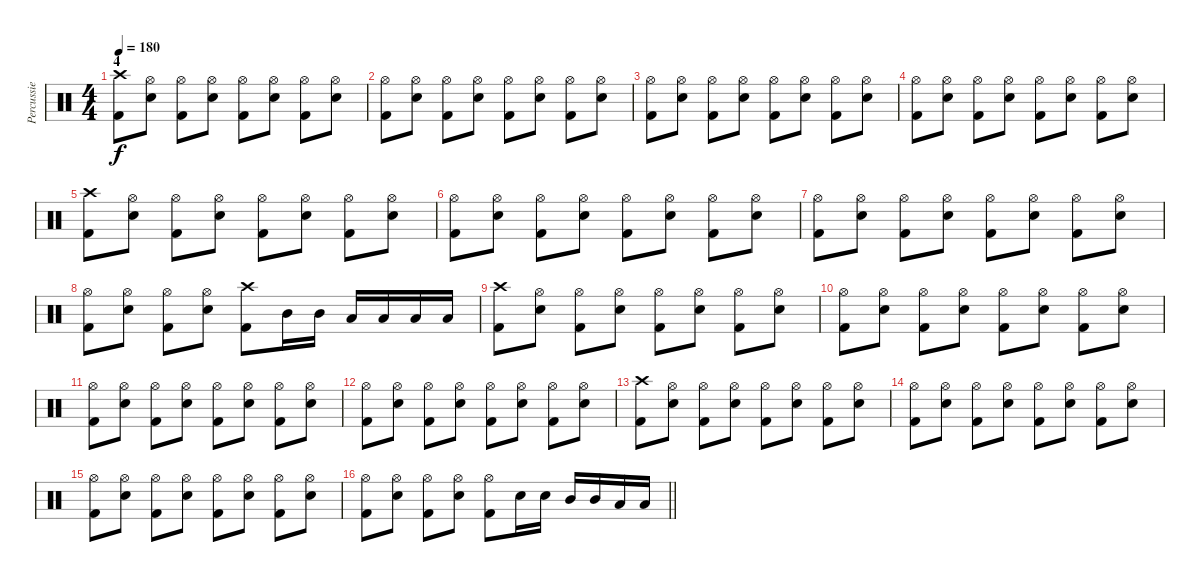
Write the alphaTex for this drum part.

\track ("Percussie" "Percussie") {instrument percussion}
\staff {score}
\articulation defaults
\ts (4 4)
\section ("" "4")
\tempo 180
\clef neutral
\ks c
("Crash high (hit)" "Kick (hit) 2").8{dy f} ("Hi-Hat (open)" "Snare (hit) 2").8 ("Hi-Hat (open)" "Kick (hit) 2").8 ("Hi-Hat (open)" "Snare (hit) 2").8 ("Hi-Hat (open)" "Kick (hit) 2").8 ("Hi-Hat (open)" "Snare (hit) 2").8 ("Hi-Hat (open)" "Kick (hit) 2").8 ("Hi-Hat (open)" "Snare (hit) 2").8 |
("Hi-Hat (open)" "Kick (hit) 2").8 ("Hi-Hat (open)" "Snare (hit) 2").8 ("Hi-Hat (open)" "Kick (hit) 2").8 ("Hi-Hat (open)" "Snare (hit) 2").8 ("Hi-Hat (open)" "Kick (hit) 2").8 ("Hi-Hat (open)" "Snare (hit) 2").8 ("Hi-Hat (open)" "Kick (hit) 2").8 ("Hi-Hat (open)" "Snare (hit) 2").8 |
("Hi-Hat (open)" "Kick (hit) 2").8 ("Hi-Hat (open)" "Snare (hit) 2").8 ("Hi-Hat (open)" "Kick (hit) 2").8 ("Hi-Hat (open)" "Snare (hit) 2").8 ("Hi-Hat (open)" "Kick (hit) 2").8 ("Hi-Hat (open)" "Snare (hit) 2").8 ("Hi-Hat (open)" "Kick (hit) 2").8 ("Hi-Hat (open)" "Snare (hit) 2").8 |
("Hi-Hat (open)" "Kick (hit) 2").8 ("Hi-Hat (open)" "Snare (hit) 2").8 ("Hi-Hat (open)" "Kick (hit) 2").8 ("Hi-Hat (open)" "Snare (hit) 2").8 ("Hi-Hat (open)" "Kick (hit) 2").8 ("Hi-Hat (open)" "Snare (hit) 2").8 ("Hi-Hat (open)" "Kick (hit) 2").8 ("Hi-Hat (open)" "Snare (hit) 2").8 |
("Crash high (hit)" "Kick (hit) 2").8 ("Hi-Hat (open)" "Snare (hit) 2").8 ("Hi-Hat (open)" "Kick (hit) 2").8 ("Hi-Hat (open)" "Snare (hit) 2").8 ("Hi-Hat (open)" "Kick (hit) 2").8 ("Hi-Hat (open)" "Snare (hit) 2").8 ("Hi-Hat (open)" "Kick (hit) 2").8 ("Hi-Hat (open)" "Snare (hit) 2").8 |
("Hi-Hat (open)" "Kick (hit) 2").8 ("Hi-Hat (open)" "Snare (hit) 2").8 ("Hi-Hat (open)" "Kick (hit) 2").8 ("Hi-Hat (open)" "Snare (hit) 2").8 ("Hi-Hat (open)" "Kick (hit) 2").8 ("Hi-Hat (open)" "Snare (hit) 2").8 ("Hi-Hat (open)" "Kick (hit) 2").8 ("Hi-Hat (open)" "Snare (hit) 2").8 |
("Hi-Hat (open)" "Kick (hit) 2").8 ("Hi-Hat (open)" "Snare (hit) 2").8 ("Hi-Hat (open)" "Kick (hit) 2").8 ("Hi-Hat (open)" "Snare (hit) 2").8 ("Hi-Hat (open)" "Kick (hit) 2").8 ("Hi-Hat (open)" "Snare (hit) 2").8 ("Hi-Hat (open)" "Kick (hit) 2").8 ("Hi-Hat (open)" "Snare (hit) 2").8 |
("Hi-Hat (open)" "Kick (hit) 2").8 ("Hi-Hat (open)" "Snare (hit) 2").8 ("Hi-Hat (open)" "Kick (hit) 2").8 ("Hi-Hat (open)" "Snare (hit) 2").8 ("Crash high (hit)" "Kick (hit) 2").8 "Mid Tom (hit)".16 "Mid Tom (hit)".16 "Low Tom (hit)".16 "Low Tom (hit)".16 "Low Tom (hit)".16 "Low Tom (hit)".16 |
("Crash high (hit)" "Kick (hit) 2").8 ("Hi-Hat (open)" "Snare (hit) 2").8 ("Hi-Hat (open)" "Kick (hit) 2").8 ("Hi-Hat (open)" "Snare (hit) 2").8 ("Hi-Hat (open)" "Kick (hit) 2").8 ("Hi-Hat (open)" "Snare (hit) 2").8 ("Hi-Hat (open)" "Kick (hit) 2").8 ("Hi-Hat (open)" "Snare (hit) 2").8 |
("Hi-Hat (open)" "Kick (hit) 2").8 ("Hi-Hat (open)" "Snare (hit) 2").8 ("Hi-Hat (open)" "Kick (hit) 2").8 ("Hi-Hat (open)" "Snare (hit) 2").8 ("Hi-Hat (open)" "Kick (hit) 2").8 ("Hi-Hat (open)" "Snare (hit) 2").8 ("Hi-Hat (open)" "Kick (hit) 2").8 ("Hi-Hat (open)" "Snare (hit) 2").8 |
("Hi-Hat (open)" "Kick (hit) 2").8 ("Hi-Hat (open)" "Snare (hit) 2").8 ("Hi-Hat (open)" "Kick (hit) 2").8 ("Hi-Hat (open)" "Snare (hit) 2").8 ("Hi-Hat (open)" "Kick (hit) 2").8 ("Hi-Hat (open)" "Snare (hit) 2").8 ("Hi-Hat (open)" "Kick (hit) 2").8 ("Hi-Hat (open)" "Snare (hit) 2").8 |
("Hi-Hat (open)" "Kick (hit) 2").8 ("Hi-Hat (open)" "Snare (hit) 2").8 ("Hi-Hat (open)" "Kick (hit) 2").8 ("Hi-Hat (open)" "Snare (hit) 2").8 ("Hi-Hat (open)" "Kick (hit) 2").8 ("Hi-Hat (open)" "Snare (hit) 2").8 ("Hi-Hat (open)" "Kick (hit) 2").8 ("Hi-Hat (open)" "Snare (hit) 2").8 |
("Crash high (hit)" "Kick (hit) 2").8 ("Hi-Hat (open)" "Snare (hit) 2").8 ("Hi-Hat (open)" "Kick (hit) 2").8 ("Hi-Hat (open)" "Snare (hit) 2").8 ("Hi-Hat (open)" "Kick (hit) 2").8 ("Hi-Hat (open)" "Snare (hit) 2").8 ("Hi-Hat (open)" "Kick (hit) 2").8 ("Hi-Hat (open)" "Snare (hit) 2").8 |
("Hi-Hat (open)" "Kick (hit) 2").8 ("Hi-Hat (open)" "Snare (hit) 2").8 ("Hi-Hat (open)" "Kick (hit) 2").8 ("Hi-Hat (open)" "Snare (hit) 2").8 ("Hi-Hat (open)" "Kick (hit) 2").8 ("Hi-Hat (open)" "Snare (hit) 2").8 ("Hi-Hat (open)" "Kick (hit) 2").8 ("Hi-Hat (open)" "Snare (hit) 2").8 |
("Hi-Hat (open)" "Kick (hit) 2").8 ("Hi-Hat (open)" "Snare (hit) 2").8 ("Hi-Hat (open)" "Kick (hit) 2").8 ("Hi-Hat (open)" "Snare (hit) 2").8 ("Hi-Hat (open)" "Kick (hit) 2").8 ("Hi-Hat (open)" "Snare (hit) 2").8 ("Hi-Hat (open)" "Kick (hit) 2").8 ("Hi-Hat (open)" "Snare (hit) 2").8 |
\barLineRight lightlight
("Hi-Hat (open)" "Kick (hit) 2").8 ("Hi-Hat (open)" "Snare (hit) 2").8 ("Hi-Hat (open)" "Kick (hit) 2").8 ("Hi-Hat (open)" "Snare (hit) 2").8 ("Hi-Hat (open)" "Kick (hit) 2").8 "Snare (hit) 2".16 "Snare (hit) 2".16 "Mid Tom (hit)".16 "Mid Tom (hit)".16 "Low Tom (hit)".16 "Low Tom (hit)".16
